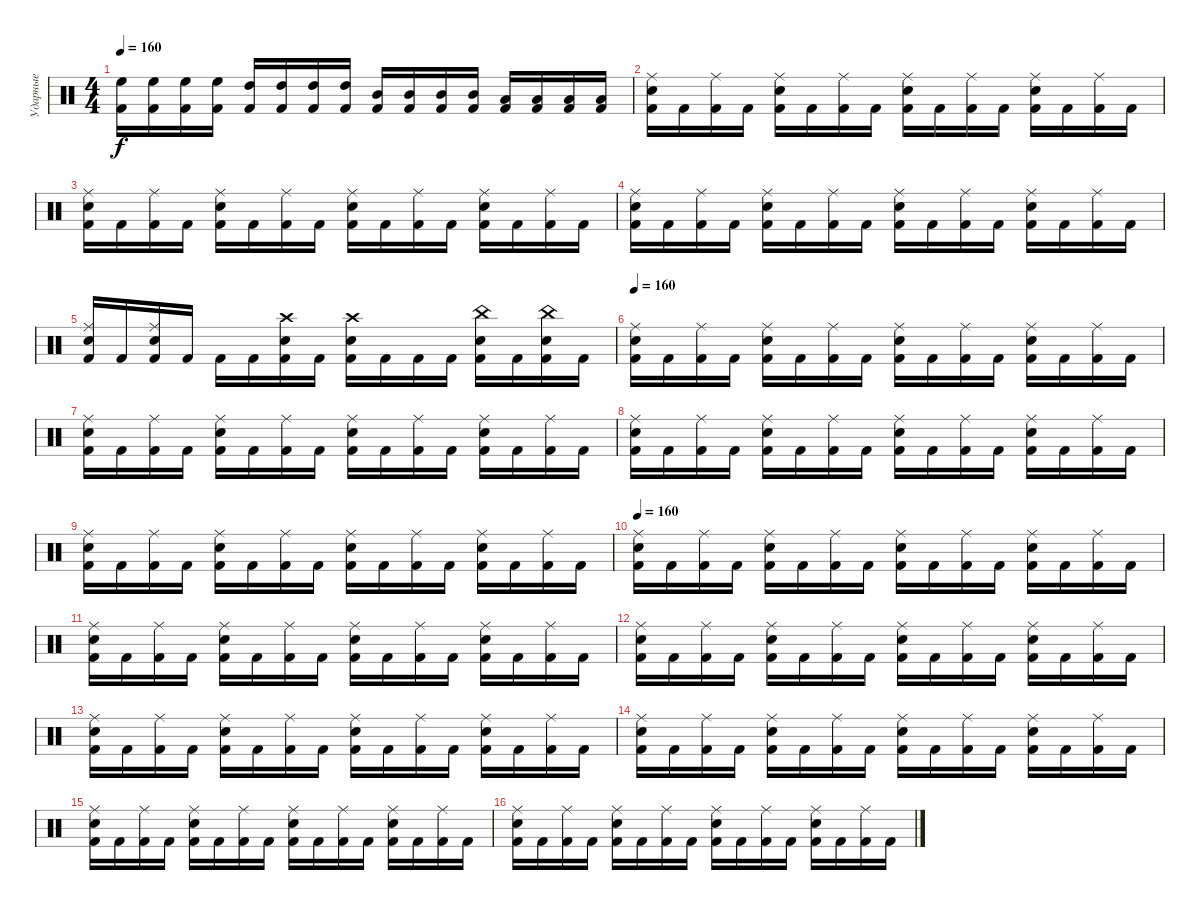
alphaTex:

\track ("Ударные" "Ударные") {instrument percussion}
\staff {score}
\articulation defaults
\ts (4 4)
\tempo 160
\clef neutral
\ks c
("Kick (hit) 2" "High Floor Tom (hit)").16{dy f} ("Kick (hit) 2" "High Floor Tom (hit)").16 ("Kick (hit) 2" "High Floor Tom (hit)").16 ("Kick (hit) 2" "High Floor Tom (hit)").16 ("Kick (hit) 2" "High Tom (hit)").16 ("Kick (hit) 2" "High Tom (hit)").16 ("Kick (hit) 2" "High Tom (hit)").16 ("Kick (hit) 2" "High Tom (hit)").16 ("Kick (hit) 2" "Mid Tom (hit)").16 ("Kick (hit) 2" "Mid Tom (hit)").16 ("Kick (hit) 2" "Mid Tom (hit)").16 ("Kick (hit) 2" "Mid Tom (hit)").16 ("Kick (hit) 2" "Low Tom (hit)").16 ("Kick (hit) 2" "Low Tom (hit)").16 ("Kick (hit) 2" "Low Tom (hit)").16 ("Kick (hit) 2" "Low Tom (hit)").16 |
("Kick (hit) 2" "Ride (middle)" "Snare (hit) 2").16 "Kick (hit) 2".16 ("Kick (hit) 2" "Ride (middle)").16 "Kick (hit) 2".16 ("Kick (hit) 2" "Ride (middle)" "Snare (hit) 2").16 "Kick (hit) 2".16 ("Kick (hit) 2" "Ride (middle)").16 "Kick (hit) 2".16 ("Kick (hit) 2" "Ride (middle)" "Snare (hit) 2").16 "Kick (hit) 2".16 ("Kick (hit) 2" "Ride (middle)").16 "Kick (hit) 2".16 ("Kick (hit) 2" "Ride (middle)" "Snare (hit) 2").16 "Kick (hit) 2".16 ("Kick (hit) 2" "Ride (middle)").16 "Kick (hit) 2".16 |
("Kick (hit) 2" "Ride (middle)" "Snare (hit) 2").16 "Kick (hit) 2".16 ("Kick (hit) 2" "Ride (middle)").16 "Kick (hit) 2".16 ("Kick (hit) 2" "Ride (middle)" "Snare (hit) 2").16 "Kick (hit) 2".16 ("Kick (hit) 2" "Ride (middle)").16 "Kick (hit) 2".16 ("Kick (hit) 2" "Ride (middle)" "Snare (hit) 2").16 "Kick (hit) 2".16 ("Kick (hit) 2" "Ride (middle)").16 "Kick (hit) 2".16 ("Kick (hit) 2" "Ride (middle)" "Snare (hit) 2").16 "Kick (hit) 2".16 ("Kick (hit) 2" "Ride (middle)").16 "Kick (hit) 2".16 |
("Kick (hit) 2" "Ride (middle)" "Snare (hit) 2").16 "Kick (hit) 2".16 ("Kick (hit) 2" "Ride (middle)").16 "Kick (hit) 2".16 ("Kick (hit) 2" "Ride (middle)" "Snare (hit) 2").16 "Kick (hit) 2".16 ("Kick (hit) 2" "Ride (middle)").16 "Kick (hit) 2".16 ("Kick (hit) 2" "Ride (middle)" "Snare (hit) 2").16 "Kick (hit) 2".16 ("Kick (hit) 2" "Ride (middle)").16 "Kick (hit) 2".16 ("Kick (hit) 2" "Ride (middle)" "Snare (hit) 2").16 "Kick (hit) 2".16 ("Kick (hit) 2" "Ride (middle)").16 "Kick (hit) 2".16 |
("Kick (hit) 2" "Snare (hit) 2" "Ride (middle)").16 "Kick (hit) 2".16 ("Kick (hit) 2" "Snare (hit) 2" "Ride (middle)").16 "Kick (hit) 2".16 "Kick (hit) 2".16 "Kick (hit) 2".16 ("Kick (hit) 2" "Snare (hit) 2" "Crash high (hit)").16 "Kick (hit) 2".16 ("Kick (hit) 2" "Snare (hit) 2" "Crash high (hit)").16 "Kick (hit) 2".16 "Kick (hit) 2".16 "Kick (hit) 2".16 ("Kick (hit) 2" "Snare (hit) 2" "China (hit)").16 "Kick (hit) 2".16 ("Kick (hit) 2" "Snare (hit) 2" "China (hit)").16 "Kick (hit) 2".16 |
\tempo 160
("Kick (hit) 2" "Ride (middle)" "Snare (hit) 2").16 "Kick (hit) 2".16 ("Kick (hit) 2" "Ride (middle)").16 "Kick (hit) 2".16 ("Kick (hit) 2" "Ride (middle)" "Snare (hit) 2").16 "Kick (hit) 2".16 ("Kick (hit) 2" "Ride (middle)").16 "Kick (hit) 2".16 ("Kick (hit) 2" "Ride (middle)" "Snare (hit) 2").16 "Kick (hit) 2".16 ("Kick (hit) 2" "Ride (middle)").16 "Kick (hit) 2".16 ("Kick (hit) 2" "Ride (middle)" "Snare (hit) 2").16 "Kick (hit) 2".16 ("Kick (hit) 2" "Ride (middle)").16 "Kick (hit) 2".16 |
("Kick (hit) 2" "Ride (middle)" "Snare (hit) 2").16 "Kick (hit) 2".16 ("Kick (hit) 2" "Ride (middle)").16 "Kick (hit) 2".16 ("Kick (hit) 2" "Ride (middle)" "Snare (hit) 2").16 "Kick (hit) 2".16 ("Kick (hit) 2" "Ride (middle)").16 "Kick (hit) 2".16 ("Kick (hit) 2" "Ride (middle)" "Snare (hit) 2").16 "Kick (hit) 2".16 ("Kick (hit) 2" "Ride (middle)").16 "Kick (hit) 2".16 ("Kick (hit) 2" "Ride (middle)" "Snare (hit) 2").16 "Kick (hit) 2".16 ("Kick (hit) 2" "Ride (middle)").16 "Kick (hit) 2".16 |
("Kick (hit) 2" "Ride (middle)" "Snare (hit) 2").16 "Kick (hit) 2".16 ("Kick (hit) 2" "Ride (middle)").16 "Kick (hit) 2".16 ("Kick (hit) 2" "Ride (middle)" "Snare (hit) 2").16 "Kick (hit) 2".16 ("Kick (hit) 2" "Ride (middle)").16 "Kick (hit) 2".16 ("Kick (hit) 2" "Ride (middle)" "Snare (hit) 2").16 "Kick (hit) 2".16 ("Kick (hit) 2" "Ride (middle)").16 "Kick (hit) 2".16 ("Kick (hit) 2" "Ride (middle)" "Snare (hit) 2").16 "Kick (hit) 2".16 ("Kick (hit) 2" "Ride (middle)").16 "Kick (hit) 2".16 |
("Kick (hit) 2" "Ride (middle)" "Snare (hit) 2").16 "Kick (hit) 2".16 ("Kick (hit) 2" "Ride (middle)").16 "Kick (hit) 2".16 ("Kick (hit) 2" "Ride (middle)" "Snare (hit) 2").16 "Kick (hit) 2".16 ("Kick (hit) 2" "Ride (middle)").16 "Kick (hit) 2".16 ("Kick (hit) 2" "Ride (middle)" "Snare (hit) 2").16 "Kick (hit) 2".16 ("Kick (hit) 2" "Ride (middle)").16 "Kick (hit) 2".16 ("Kick (hit) 2" "Ride (middle)" "Snare (hit) 2").16 "Kick (hit) 2".16 ("Kick (hit) 2" "Ride (middle)").16 "Kick (hit) 2".16 |
\tempo 160
("Kick (hit) 2" "Ride (middle)" "Snare (hit) 2").16 "Kick (hit) 2".16 ("Kick (hit) 2" "Ride (middle)").16 "Kick (hit) 2".16 ("Kick (hit) 2" "Ride (middle)" "Snare (hit) 2").16 "Kick (hit) 2".16 ("Kick (hit) 2" "Ride (middle)").16 "Kick (hit) 2".16 ("Kick (hit) 2" "Ride (middle)" "Snare (hit) 2").16 "Kick (hit) 2".16 ("Kick (hit) 2" "Ride (middle)").16 "Kick (hit) 2".16 ("Kick (hit) 2" "Ride (middle)" "Snare (hit) 2").16 "Kick (hit) 2".16 ("Kick (hit) 2" "Ride (middle)").16 "Kick (hit) 2".16 |
("Kick (hit) 2" "Ride (middle)" "Snare (hit) 2").16 "Kick (hit) 2".16 ("Kick (hit) 2" "Ride (middle)").16 "Kick (hit) 2".16 ("Kick (hit) 2" "Ride (middle)" "Snare (hit) 2").16 "Kick (hit) 2".16 ("Kick (hit) 2" "Ride (middle)").16 "Kick (hit) 2".16 ("Kick (hit) 2" "Ride (middle)" "Snare (hit) 2").16 "Kick (hit) 2".16 ("Kick (hit) 2" "Ride (middle)").16 "Kick (hit) 2".16 ("Kick (hit) 2" "Ride (middle)" "Snare (hit) 2").16 "Kick (hit) 2".16 ("Kick (hit) 2" "Ride (middle)").16 "Kick (hit) 2".16 |
("Kick (hit) 2" "Ride (middle)" "Snare (hit) 2").16 "Kick (hit) 2".16 ("Kick (hit) 2" "Ride (middle)").16 "Kick (hit) 2".16 ("Kick (hit) 2" "Ride (middle)" "Snare (hit) 2").16 "Kick (hit) 2".16 ("Kick (hit) 2" "Ride (middle)").16 "Kick (hit) 2".16 ("Kick (hit) 2" "Ride (middle)" "Snare (hit) 2").16 "Kick (hit) 2".16 ("Kick (hit) 2" "Ride (middle)").16 "Kick (hit) 2".16 ("Kick (hit) 2" "Ride (middle)" "Snare (hit) 2").16 "Kick (hit) 2".16 ("Kick (hit) 2" "Ride (middle)").16 "Kick (hit) 2".16 |
("Kick (hit) 2" "Ride (middle)" "Snare (hit) 2").16 "Kick (hit) 2".16 ("Kick (hit) 2" "Ride (middle)").16 "Kick (hit) 2".16 ("Kick (hit) 2" "Ride (middle)" "Snare (hit) 2").16 "Kick (hit) 2".16 ("Kick (hit) 2" "Ride (middle)").16 "Kick (hit) 2".16 ("Kick (hit) 2" "Ride (middle)" "Snare (hit) 2").16 "Kick (hit) 2".16 ("Kick (hit) 2" "Ride (middle)").16 "Kick (hit) 2".16 ("Kick (hit) 2" "Ride (middle)" "Snare (hit) 2").16 "Kick (hit) 2".16 ("Kick (hit) 2" "Ride (middle)").16 "Kick (hit) 2".16 |
("Kick (hit) 2" "Ride (middle)" "Snare (hit) 2").16 "Kick (hit) 2".16 ("Kick (hit) 2" "Ride (middle)").16 "Kick (hit) 2".16 ("Kick (hit) 2" "Ride (middle)" "Snare (hit) 2").16 "Kick (hit) 2".16 ("Kick (hit) 2" "Ride (middle)").16 "Kick (hit) 2".16 ("Kick (hit) 2" "Ride (middle)" "Snare (hit) 2").16 "Kick (hit) 2".16 ("Kick (hit) 2" "Ride (middle)").16 "Kick (hit) 2".16 ("Kick (hit) 2" "Ride (middle)" "Snare (hit) 2").16 "Kick (hit) 2".16 ("Kick (hit) 2" "Ride (middle)").16 "Kick (hit) 2".16 |
("Kick (hit) 2" "Ride (middle)" "Snare (hit) 2").16 "Kick (hit) 2".16 ("Kick (hit) 2" "Ride (middle)").16 "Kick (hit) 2".16 ("Kick (hit) 2" "Ride (middle)" "Snare (hit) 2").16 "Kick (hit) 2".16 ("Kick (hit) 2" "Ride (middle)").16 "Kick (hit) 2".16 ("Kick (hit) 2" "Ride (middle)" "Snare (hit) 2").16 "Kick (hit) 2".16 ("Kick (hit) 2" "Ride (middle)").16 "Kick (hit) 2".16 ("Kick (hit) 2" "Ride (middle)" "Snare (hit) 2").16 "Kick (hit) 2".16 ("Kick (hit) 2" "Ride (middle)").16 "Kick (hit) 2".16 |
("Kick (hit) 2" "Ride (middle)" "Snare (hit) 2").16 "Kick (hit) 2".16 ("Kick (hit) 2" "Ride (middle)").16 "Kick (hit) 2".16 ("Kick (hit) 2" "Ride (middle)" "Snare (hit) 2").16 "Kick (hit) 2".16 ("Kick (hit) 2" "Ride (middle)").16 "Kick (hit) 2".16 ("Kick (hit) 2" "Ride (middle)" "Snare (hit) 2").16 "Kick (hit) 2".16 ("Kick (hit) 2" "Ride (middle)").16 "Kick (hit) 2".16 ("Kick (hit) 2" "Ride (middle)" "Snare (hit) 2").16 "Kick (hit) 2".16 ("Kick (hit) 2" "Ride (middle)").16 "Kick (hit) 2".16
